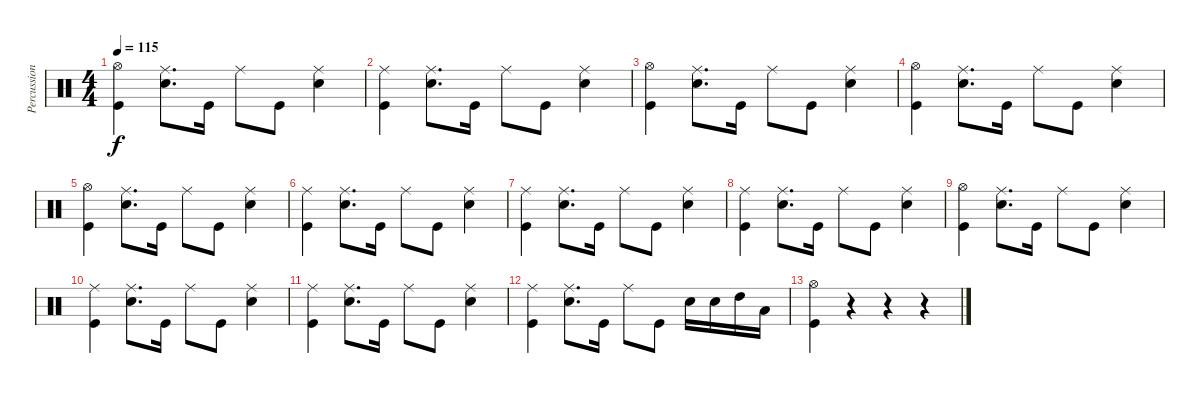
\track ("Percussion 1" "Percussion") {instrument percussion}
\staff {score}
\articulation defaults
\ts (4 4)
\tempo 115
\clef neutral
\ks c
("Hi-Hat (open)" "Kick (hit)").4{dy f} ("Ride (middle)" "Snare (hit) 2").8{d} "Kick (hit)".16 "Ride (middle)".8 "Kick (hit)".8 ("Ride (middle)" "Snare (hit) 2").4 |
("Ride (middle)" "Kick (hit)").4 ("Ride (middle)" "Snare (hit) 2").8{d} "Kick (hit)".16 "Ride (middle)".8 "Kick (hit)".8 ("Ride (middle)" "Snare (hit) 2").4 |
("Hi-Hat (open)" "Kick (hit)").4 ("Ride (middle)" "Snare (hit) 2").8{d} "Kick (hit)".16 "Ride (middle)".8 "Kick (hit)".8 ("Ride (middle)" "Snare (hit) 2").4 |
("Hi-Hat (open)" "Kick (hit)").4 ("Ride (middle)" "Snare (hit) 2").8{d} "Kick (hit)".16 "Ride (middle)".8 "Kick (hit)".8 ("Ride (middle)" "Snare (hit) 2").4 |
("Hi-Hat (open)" "Kick (hit)").4 ("Ride (middle)" "Snare (hit) 2").8{d} "Kick (hit)".16 "Ride (middle)".8 "Kick (hit)".8 ("Ride (middle)" "Snare (hit) 2").4 |
("Ride (middle)" "Kick (hit)").4 ("Ride (middle)" "Snare (hit) 2").8{d} "Kick (hit)".16 "Ride (middle)".8 "Kick (hit)".8 ("Ride (middle)" "Snare (hit) 2").4 |
("Ride (middle)" "Kick (hit)").4 ("Ride (middle)" "Snare (hit) 2").8{d} "Kick (hit)".16 "Ride (middle)".8 "Kick (hit)".8 ("Ride (middle)" "Snare (hit) 2").4 |
("Ride (middle)" "Kick (hit)").4 ("Ride (middle)" "Snare (hit) 2").8{d} "Kick (hit)".16 "Ride (middle)".8 "Kick (hit)".8 ("Ride (middle)" "Snare (hit) 2").4 |
("Hi-Hat (open)" "Kick (hit)").4 ("Ride (middle)" "Snare (hit) 2").8{d} "Kick (hit)".16 "Ride (middle)".8 "Kick (hit)".8 ("Ride (middle)" "Snare (hit) 2").4 |
("Ride (middle)" "Kick (hit)").4 ("Ride (middle)" "Snare (hit) 2").8{d} "Kick (hit)".16 "Ride (middle)".8 "Kick (hit)".8 ("Ride (middle)" "Snare (hit) 2").4 |
("Ride (middle)" "Kick (hit)").4 ("Ride (middle)" "Snare (hit) 2").8{d} "Kick (hit)".16 "Ride (middle)".8 "Kick (hit)".8 ("Ride (middle)" "Snare (hit) 2").4 |
("Ride (middle)" "Kick (hit)").4 ("Ride (middle)" "Snare (hit) 2").8{d} "Kick (hit)".16 "Ride (middle)".8 "Kick (hit)".8 "Snare (hit) 2".16 "Snare (hit) 2".16 "High Tom (hit)".16 "Low Tom (hit)".16 |
("Hi-Hat (open)" "Kick (hit)").4 r.4 r.4 r.4
